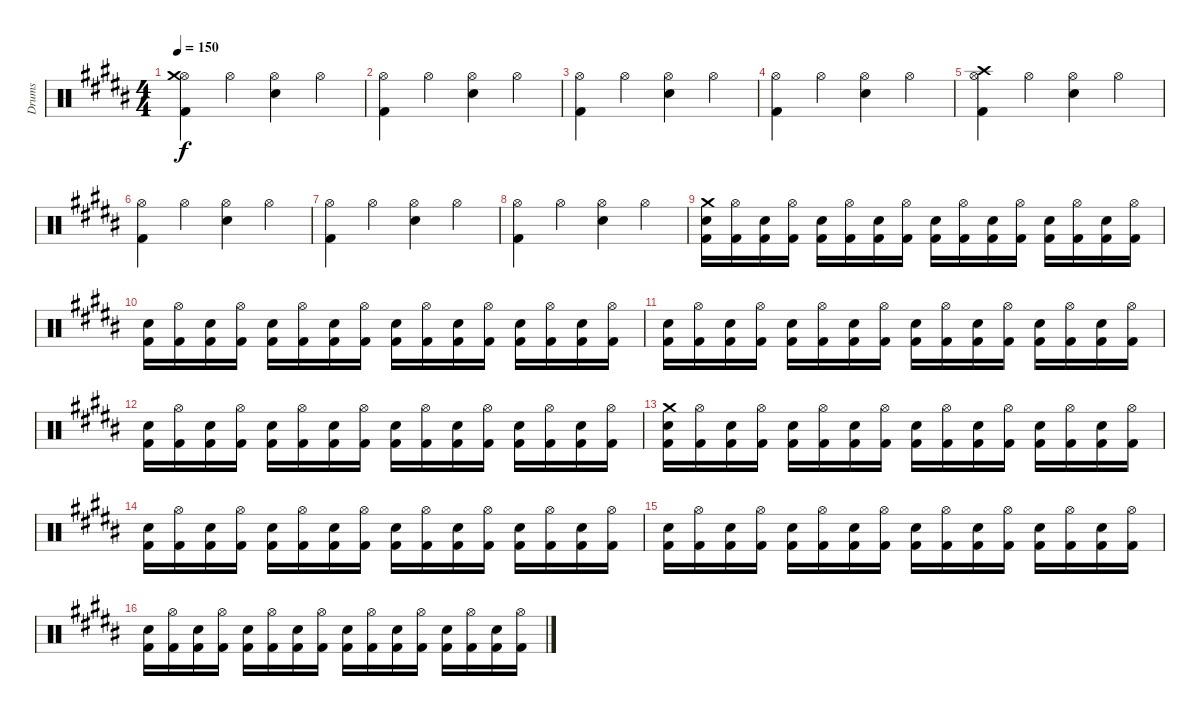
\track ("Drums" "Drums") {instrument percussion}
\staff {score}
\articulation defaults
\ts (4 4)
\tempo 150
\clef neutral
\ks b
("Kick (hit) 2" "Hi-Hat (open)" "Crash medium (hit)").4{dy f} "Hi-Hat (open)".4 ("Snare (hit) 2" "Hi-Hat (open)").4 "Hi-Hat (open)".4 |
("Kick (hit) 2" "Hi-Hat (open)").4 "Hi-Hat (open)".4 ("Snare (hit) 2" "Hi-Hat (open)").4 "Hi-Hat (open)".4 |
("Kick (hit) 2" "Hi-Hat (open)").4 "Hi-Hat (open)".4 ("Snare (hit) 2" "Hi-Hat (open)").4 "Hi-Hat (open)".4 |
("Kick (hit) 2" "Hi-Hat (open)").4 "Hi-Hat (open)".4 ("Snare (hit) 2" "Hi-Hat (open)").4 "Hi-Hat (open)".4 |
("Kick (hit) 2" "Hi-Hat (open)" "Crash high (hit)").4 "Hi-Hat (open)".4 ("Snare (hit) 2" "Hi-Hat (open)").4 "Hi-Hat (open)".4 |
("Kick (hit) 2" "Hi-Hat (open)").4 "Hi-Hat (open)".4 ("Snare (hit) 2" "Hi-Hat (open)").4 "Hi-Hat (open)".4 |
("Kick (hit) 2" "Hi-Hat (open)").4 "Hi-Hat (open)".4 ("Snare (hit) 2" "Hi-Hat (open)").4 "Hi-Hat (open)".4 |
("Kick (hit) 2" "Hi-Hat (open)").4 "Hi-Hat (open)".4 ("Snare (hit) 2" "Hi-Hat (open)").4 "Hi-Hat (open)".4 |
("Snare (hit) 2" "Crash medium (hit)" "Kick (hit) 2").16 ("Hi-Hat (open)" "Kick (hit) 2").16 ("Snare (hit) 2" "Kick (hit) 2").16 ("Hi-Hat (open)" "Kick (hit) 2").16 ("Snare (hit) 2" "Kick (hit) 2").16 ("Hi-Hat (open)" "Kick (hit) 2").16 ("Snare (hit) 2" "Kick (hit) 2").16 ("Hi-Hat (open)" "Kick (hit) 2").16 ("Snare (hit) 2" "Kick (hit) 2").16 ("Hi-Hat (open)" "Kick (hit) 2").16 ("Snare (hit) 2" "Kick (hit) 2").16 ("Hi-Hat (open)" "Kick (hit) 2").16 ("Snare (hit) 2" "Kick (hit) 2").16 ("Hi-Hat (open)" "Kick (hit) 2").16 ("Snare (hit) 2" "Kick (hit) 2").16 ("Hi-Hat (open)" "Kick (hit) 2").16 |
("Snare (hit) 2" "Kick (hit) 2").16 ("Hi-Hat (open)" "Kick (hit) 2").16 ("Snare (hit) 2" "Kick (hit) 2").16 ("Hi-Hat (open)" "Kick (hit) 2").16 ("Snare (hit) 2" "Kick (hit) 2").16 ("Hi-Hat (open)" "Kick (hit) 2").16 ("Snare (hit) 2" "Kick (hit) 2").16 ("Hi-Hat (open)" "Kick (hit) 2").16 ("Snare (hit) 2" "Kick (hit) 2").16 ("Hi-Hat (open)" "Kick (hit) 2").16 ("Snare (hit) 2" "Kick (hit) 2").16 ("Hi-Hat (open)" "Kick (hit) 2").16 ("Snare (hit) 2" "Kick (hit) 2").16 ("Hi-Hat (open)" "Kick (hit) 2").16 ("Snare (hit) 2" "Kick (hit) 2").16 ("Hi-Hat (open)" "Kick (hit) 2").16 |
("Snare (hit) 2" "Kick (hit) 2").16 ("Hi-Hat (open)" "Kick (hit) 2").16 ("Snare (hit) 2" "Kick (hit) 2").16 ("Hi-Hat (open)" "Kick (hit) 2").16 ("Snare (hit) 2" "Kick (hit) 2").16 ("Hi-Hat (open)" "Kick (hit) 2").16 ("Snare (hit) 2" "Kick (hit) 2").16 ("Hi-Hat (open)" "Kick (hit) 2").16 ("Snare (hit) 2" "Kick (hit) 2").16 ("Hi-Hat (open)" "Kick (hit) 2").16 ("Snare (hit) 2" "Kick (hit) 2").16 ("Hi-Hat (open)" "Kick (hit) 2").16 ("Snare (hit) 2" "Kick (hit) 2").16 ("Hi-Hat (open)" "Kick (hit) 2").16 ("Snare (hit) 2" "Kick (hit) 2").16 ("Hi-Hat (open)" "Kick (hit) 2").16 |
("Snare (hit) 2" "Kick (hit) 2").16 ("Hi-Hat (open)" "Kick (hit) 2").16 ("Snare (hit) 2" "Kick (hit) 2").16 ("Hi-Hat (open)" "Kick (hit) 2").16 ("Snare (hit) 2" "Kick (hit) 2").16 ("Hi-Hat (open)" "Kick (hit) 2").16 ("Snare (hit) 2" "Kick (hit) 2").16 ("Hi-Hat (open)" "Kick (hit) 2").16 ("Snare (hit) 2" "Kick (hit) 2").16 ("Hi-Hat (open)" "Kick (hit) 2").16 ("Snare (hit) 2" "Kick (hit) 2").16 ("Hi-Hat (open)" "Kick (hit) 2").16 ("Snare (hit) 2" "Kick (hit) 2").16 ("Hi-Hat (open)" "Kick (hit) 2").16 ("Snare (hit) 2" "Kick (hit) 2").16 ("Hi-Hat (open)" "Kick (hit) 2").16 |
("Snare (hit) 2" "Crash medium (hit)" "Kick (hit) 2").16 ("Hi-Hat (open)" "Kick (hit) 2").16 ("Snare (hit) 2" "Kick (hit) 2").16 ("Hi-Hat (open)" "Kick (hit) 2").16 ("Snare (hit) 2" "Kick (hit) 2").16 ("Hi-Hat (open)" "Kick (hit) 2").16 ("Snare (hit) 2" "Kick (hit) 2").16 ("Hi-Hat (open)" "Kick (hit) 2").16 ("Snare (hit) 2" "Kick (hit) 2").16 ("Hi-Hat (open)" "Kick (hit) 2").16 ("Snare (hit) 2" "Kick (hit) 2").16 ("Hi-Hat (open)" "Kick (hit) 2").16 ("Snare (hit) 2" "Kick (hit) 2").16 ("Hi-Hat (open)" "Kick (hit) 2").16 ("Snare (hit) 2" "Kick (hit) 2").16 ("Hi-Hat (open)" "Kick (hit) 2").16 |
("Snare (hit) 2" "Kick (hit) 2").16 ("Hi-Hat (open)" "Kick (hit) 2").16 ("Snare (hit) 2" "Kick (hit) 2").16 ("Hi-Hat (open)" "Kick (hit) 2").16 ("Snare (hit) 2" "Kick (hit) 2").16 ("Hi-Hat (open)" "Kick (hit) 2").16 ("Snare (hit) 2" "Kick (hit) 2").16 ("Hi-Hat (open)" "Kick (hit) 2").16 ("Snare (hit) 2" "Kick (hit) 2").16 ("Hi-Hat (open)" "Kick (hit) 2").16 ("Snare (hit) 2" "Kick (hit) 2").16 ("Hi-Hat (open)" "Kick (hit) 2").16 ("Snare (hit) 2" "Kick (hit) 2").16 ("Hi-Hat (open)" "Kick (hit) 2").16 ("Snare (hit) 2" "Kick (hit) 2").16 ("Hi-Hat (open)" "Kick (hit) 2").16 |
("Snare (hit) 2" "Kick (hit) 2").16 ("Hi-Hat (open)" "Kick (hit) 2").16 ("Snare (hit) 2" "Kick (hit) 2").16 ("Hi-Hat (open)" "Kick (hit) 2").16 ("Snare (hit) 2" "Kick (hit) 2").16 ("Hi-Hat (open)" "Kick (hit) 2").16 ("Snare (hit) 2" "Kick (hit) 2").16 ("Hi-Hat (open)" "Kick (hit) 2").16 ("Snare (hit) 2" "Kick (hit) 2").16 ("Hi-Hat (open)" "Kick (hit) 2").16 ("Snare (hit) 2" "Kick (hit) 2").16 ("Hi-Hat (open)" "Kick (hit) 2").16 ("Snare (hit) 2" "Kick (hit) 2").16 ("Hi-Hat (open)" "Kick (hit) 2").16 ("Snare (hit) 2" "Kick (hit) 2").16 ("Hi-Hat (open)" "Kick (hit) 2").16 |
("Snare (hit) 2" "Kick (hit) 2").16 ("Hi-Hat (open)" "Kick (hit) 2").16 ("Snare (hit) 2" "Kick (hit) 2").16 ("Hi-Hat (open)" "Kick (hit) 2").16 ("Snare (hit) 2" "Kick (hit) 2").16 ("Hi-Hat (open)" "Kick (hit) 2").16 ("Snare (hit) 2" "Kick (hit) 2").16 ("Hi-Hat (open)" "Kick (hit) 2").16 ("Snare (hit) 2" "Kick (hit) 2").16 ("Hi-Hat (open)" "Kick (hit) 2").16 ("Snare (hit) 2" "Kick (hit) 2").16 ("Hi-Hat (open)" "Kick (hit) 2").16 ("Snare (hit) 2" "Kick (hit) 2").16 ("Hi-Hat (open)" "Kick (hit) 2").16 ("Snare (hit) 2" "Kick (hit) 2").16 ("Hi-Hat (open)" "Kick (hit) 2").16
